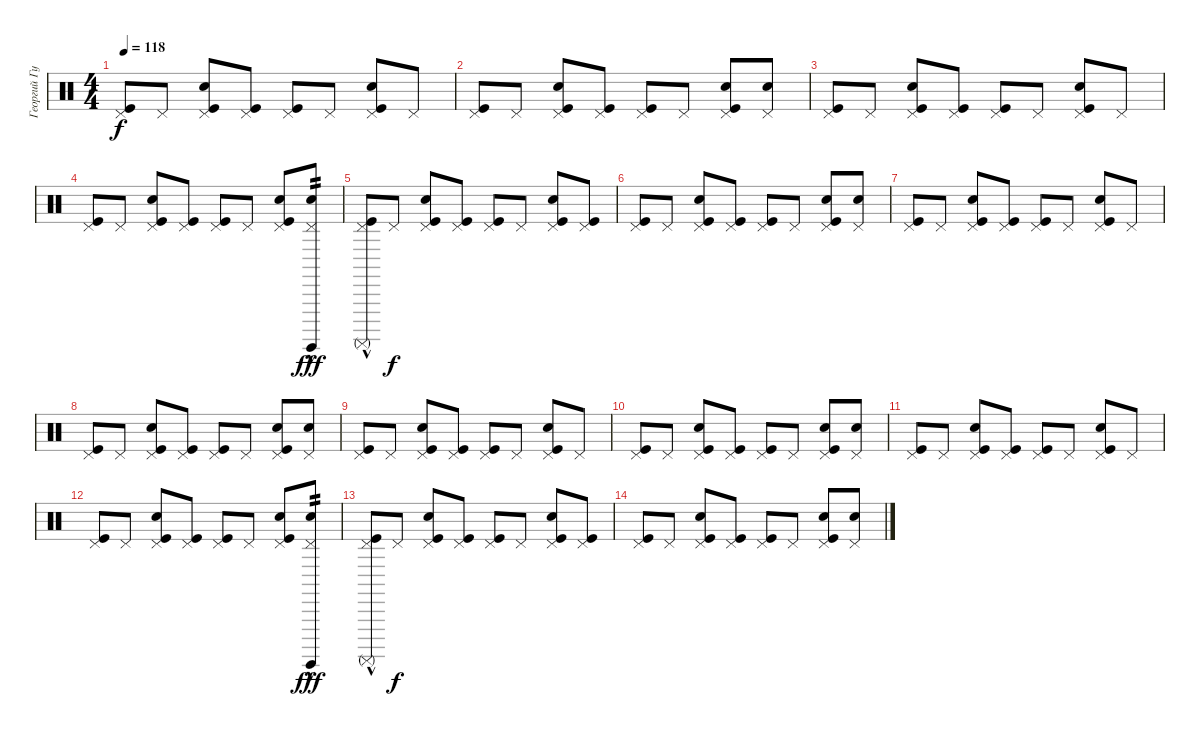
\track ("Георгий Гурьянов" "Георгий Гу") {instrument percussion}
\staff {score}
\articulation defaults
\ts (4 4)
\tempo 118
\clef neutral
\ks c
("Pedal Hi-Hat (hit)" "Kick (hit)").8{dy f} "Pedal Hi-Hat (hit)".8 ("Pedal Hi-Hat (hit)" "Kick (hit)" "Snare (hit) 2").8 ("Pedal Hi-Hat (hit)" "Kick (hit)").8 ("Pedal Hi-Hat (hit)" "Kick (hit)").8 "Pedal Hi-Hat (hit)".8 ("Pedal Hi-Hat (hit)" "Kick (hit)" "Snare (hit) 2").8 "Pedal Hi-Hat (hit)".8 |
("Pedal Hi-Hat (hit)" "Kick (hit)").8 "Pedal Hi-Hat (hit)".8 ("Pedal Hi-Hat (hit)" "Kick (hit)" "Snare (hit) 2").8 ("Pedal Hi-Hat (hit)" "Kick (hit)").8 ("Pedal Hi-Hat (hit)" "Kick (hit)").8 "Pedal Hi-Hat (hit)".8 ("Pedal Hi-Hat (hit)" "Kick (hit)" "Snare (hit) 2").8 ("Pedal Hi-Hat (hit)" "Snare (hit) 2").8 |
("Pedal Hi-Hat (hit)" "Kick (hit)").8 "Pedal Hi-Hat (hit)".8 ("Pedal Hi-Hat (hit)" "Kick (hit)" "Snare (hit) 2").8 ("Pedal Hi-Hat (hit)" "Kick (hit)").8 ("Pedal Hi-Hat (hit)" "Kick (hit)").8 "Pedal Hi-Hat (hit)".8 ("Pedal Hi-Hat (hit)" "Kick (hit)" "Snare (hit) 2").8 "Pedal Hi-Hat (hit)".8 |
("Pedal Hi-Hat (hit)" "Kick (hit)").8 "Pedal Hi-Hat (hit)".8 ("Pedal Hi-Hat (hit)" "Kick (hit)" "Snare (hit) 2").8 ("Pedal Hi-Hat (hit)" "Kick (hit)").8 ("Pedal Hi-Hat (hit)" "Kick (hit)").8 "Pedal Hi-Hat (hit)".8 ("Pedal Hi-Hat (hit)" "Kick (hit)" "Snare (hit) 2").8 ("Pedal Hi-Hat (hit)" "Snare (hit) 2" "Surdo (hit)"{hac}).8{tp 2 dy fff} |
("Pedal Hi-Hat (hit)" "Kick (hit)" "Surdo (mute)"{hac}).8 "Pedal Hi-Hat (hit)".8{dy f} ("Pedal Hi-Hat (hit)" "Kick (hit)" "Snare (hit) 2").8 ("Pedal Hi-Hat (hit)" "Kick (hit)").8 ("Pedal Hi-Hat (hit)" "Kick (hit)").8 "Pedal Hi-Hat (hit)".8 ("Pedal Hi-Hat (hit)" "Kick (hit)" "Snare (hit) 2").8 ("Pedal Hi-Hat (hit)" "Kick (hit)").8 |
("Pedal Hi-Hat (hit)" "Kick (hit)").8 "Pedal Hi-Hat (hit)".8 ("Pedal Hi-Hat (hit)" "Kick (hit)" "Snare (hit) 2").8 ("Pedal Hi-Hat (hit)" "Kick (hit)").8 ("Pedal Hi-Hat (hit)" "Kick (hit)").8 "Pedal Hi-Hat (hit)".8 ("Pedal Hi-Hat (hit)" "Kick (hit)" "Snare (hit) 2").8 ("Pedal Hi-Hat (hit)" "Snare (hit) 2").8 |
("Pedal Hi-Hat (hit)" "Kick (hit)").8 "Pedal Hi-Hat (hit)".8 ("Pedal Hi-Hat (hit)" "Kick (hit)" "Snare (hit) 2").8 ("Pedal Hi-Hat (hit)" "Kick (hit)").8 ("Pedal Hi-Hat (hit)" "Kick (hit)").8 "Pedal Hi-Hat (hit)".8 ("Pedal Hi-Hat (hit)" "Kick (hit)" "Snare (hit) 2").8 "Pedal Hi-Hat (hit)".8 |
("Pedal Hi-Hat (hit)" "Kick (hit)").8 "Pedal Hi-Hat (hit)".8 ("Pedal Hi-Hat (hit)" "Kick (hit)" "Snare (hit) 2").8 ("Pedal Hi-Hat (hit)" "Kick (hit)").8 ("Pedal Hi-Hat (hit)" "Kick (hit)").8 "Pedal Hi-Hat (hit)".8 ("Pedal Hi-Hat (hit)" "Kick (hit)" "Snare (hit) 2").8 ("Pedal Hi-Hat (hit)" "Snare (hit) 2").8 |
("Pedal Hi-Hat (hit)" "Kick (hit)").8 "Pedal Hi-Hat (hit)".8 ("Pedal Hi-Hat (hit)" "Kick (hit)" "Snare (hit) 2").8 ("Pedal Hi-Hat (hit)" "Kick (hit)").8 ("Pedal Hi-Hat (hit)" "Kick (hit)").8 "Pedal Hi-Hat (hit)".8 ("Pedal Hi-Hat (hit)" "Kick (hit)" "Snare (hit) 2").8 "Pedal Hi-Hat (hit)".8 |
("Pedal Hi-Hat (hit)" "Kick (hit)").8 "Pedal Hi-Hat (hit)".8 ("Pedal Hi-Hat (hit)" "Kick (hit)" "Snare (hit) 2").8 ("Pedal Hi-Hat (hit)" "Kick (hit)").8 ("Pedal Hi-Hat (hit)" "Kick (hit)").8 "Pedal Hi-Hat (hit)".8 ("Pedal Hi-Hat (hit)" "Kick (hit)" "Snare (hit) 2").8 ("Pedal Hi-Hat (hit)" "Snare (hit) 2").8 |
("Pedal Hi-Hat (hit)" "Kick (hit)").8 "Pedal Hi-Hat (hit)".8 ("Pedal Hi-Hat (hit)" "Kick (hit)" "Snare (hit) 2").8 ("Pedal Hi-Hat (hit)" "Kick (hit)").8 ("Pedal Hi-Hat (hit)" "Kick (hit)").8 "Pedal Hi-Hat (hit)".8 ("Pedal Hi-Hat (hit)" "Kick (hit)" "Snare (hit) 2").8 "Pedal Hi-Hat (hit)".8 |
("Pedal Hi-Hat (hit)" "Kick (hit)").8 "Pedal Hi-Hat (hit)".8 ("Pedal Hi-Hat (hit)" "Kick (hit)" "Snare (hit) 2").8 ("Pedal Hi-Hat (hit)" "Kick (hit)").8 ("Pedal Hi-Hat (hit)" "Kick (hit)").8 "Pedal Hi-Hat (hit)".8 ("Pedal Hi-Hat (hit)" "Kick (hit)" "Snare (hit) 2").8 ("Pedal Hi-Hat (hit)" "Snare (hit) 2" "Surdo (hit)"{hac}).8{tp 2 dy fff} |
("Pedal Hi-Hat (hit)" "Kick (hit)" "Surdo (mute)"{hac}).8 "Pedal Hi-Hat (hit)".8{dy f} ("Pedal Hi-Hat (hit)" "Kick (hit)" "Snare (hit) 2").8 ("Pedal Hi-Hat (hit)" "Kick (hit)").8 ("Pedal Hi-Hat (hit)" "Kick (hit)").8 "Pedal Hi-Hat (hit)".8 ("Pedal Hi-Hat (hit)" "Kick (hit)" "Snare (hit) 2").8 ("Pedal Hi-Hat (hit)" "Kick (hit)").8 |
("Pedal Hi-Hat (hit)" "Kick (hit)").8 "Pedal Hi-Hat (hit)".8 ("Pedal Hi-Hat (hit)" "Kick (hit)" "Snare (hit) 2").8 ("Pedal Hi-Hat (hit)" "Kick (hit)").8 ("Pedal Hi-Hat (hit)" "Kick (hit)").8 "Pedal Hi-Hat (hit)".8 ("Pedal Hi-Hat (hit)" "Kick (hit)" "Snare (hit) 2").8 ("Pedal Hi-Hat (hit)" "Snare (hit) 2").8
